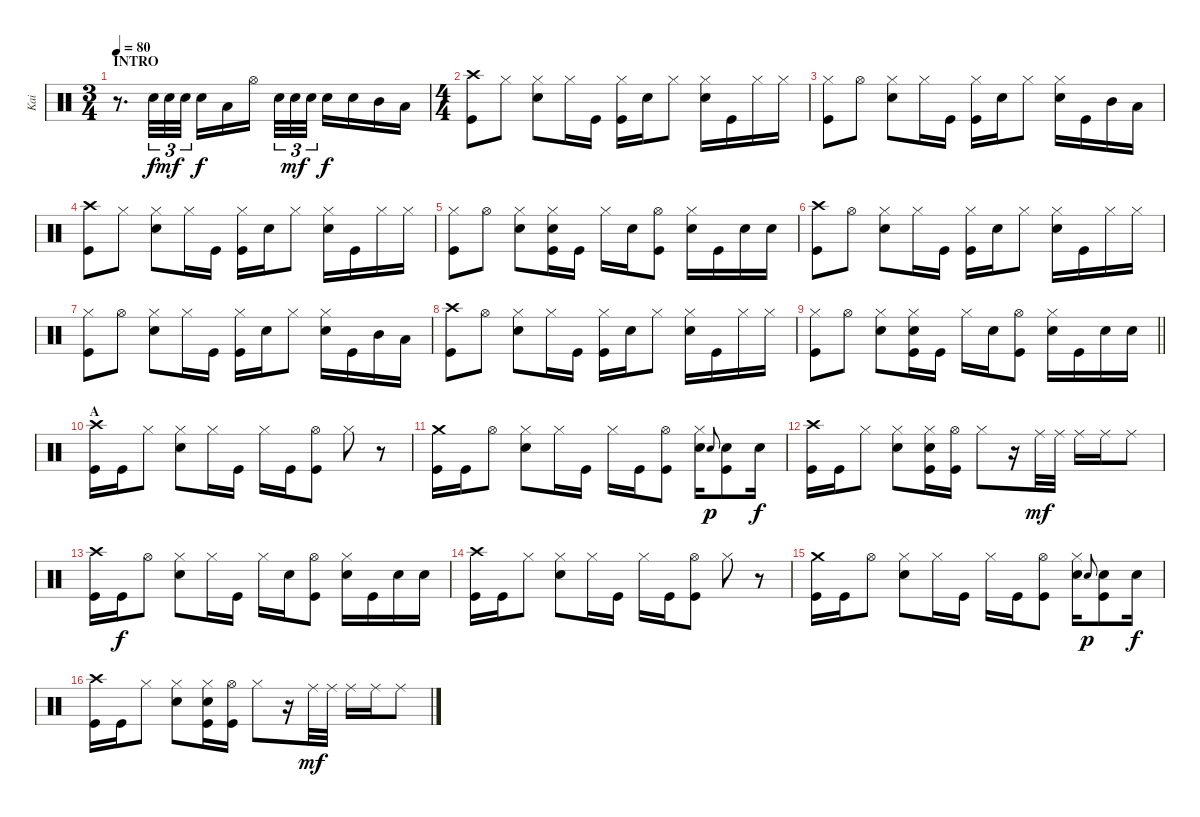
\track ("Kai" "Kai") {instrument percussion}
\staff {score}
\articulation defaults
\ts (3 4)
\section ("" "INTRO")
\tempo 80
\clef neutral
\ks c
r.8{d dy f} "Snare (hit) 2".32{tu (3 2)} "Snare (hit) 2".32{tu (3 2) dy mf} "Snare (hit) 2".32{tu (3 2)} "Snare (hit) 2".16{dy f} "Low Tom (hit)".16 "Hi-Hat (open)".16{beam splitsecondary} "Snare (hit) 2".32{tu (3 2)} "Snare (hit) 2".32{tu (3 2) dy mf} "Snare (hit) 2".32{tu (3 2)} "Snare (hit) 2".16{dy f} "Snare (hit) 2".16 "Mid Tom (hit)".16 "Low Tom (hit)".16 |
\ts (4 4)
("Crash high (hit)" "Kick (hit)").8 "Hi-Hat (closed)".8 ("Hi-Hat (closed)" "Snare (hit) 2").8 "Hi-Hat (closed)".16 "Kick (hit)".16 ("Kick (hit)" "Hi-Hat (closed)").16 "Snare (hit) 2".16 "Hi-Hat (closed)".8 ("Hi-Hat (closed)" "Snare (hit) 2").16 "Kick (hit)".16 "Hi-Hat (closed)".16 "Hi-Hat (closed)".16 |
("Hi-Hat (closed)" "Kick (hit)").8 "Hi-Hat (open)".8 ("Hi-Hat (closed)" "Snare (hit) 2").8 "Hi-Hat (closed)".16 "Kick (hit)".16 ("Kick (hit)" "Hi-Hat (closed)").16 "Snare (hit) 2".16 "Hi-Hat (closed)".8 ("Hi-Hat (closed)" "Snare (hit) 2").16 "Kick (hit)".16 "Mid Tom (hit)".16 "Low Tom (hit)".16 |
("Crash high (hit)" "Kick (hit)").8 "Hi-Hat (closed)".8 ("Hi-Hat (closed)" "Snare (hit) 2").8 "Hi-Hat (closed)".16 "Kick (hit)".16 ("Kick (hit)" "Hi-Hat (closed)").16 "Snare (hit) 2".16 "Hi-Hat (closed)".8 ("Hi-Hat (closed)" "Snare (hit) 2").16 "Kick (hit)".16 "Hi-Hat (closed)".16 "Hi-Hat (closed)".16 |
("Hi-Hat (closed)" "Kick (hit)").8 "Hi-Hat (open)".8 ("Hi-Hat (closed)" "Snare (hit) 2").8 ("Snare (hit) 2" "Hi-Hat (closed)" "Kick (hit)").16 "Kick (hit)".16 "Hi-Hat (closed)".16 "Snare (hit) 2".16 ("Kick (hit)" "Hi-Hat (open)").8 ("Hi-Hat (closed)" "Snare (hit) 2").16 "Kick (hit)".16 "Snare (hit) 2".16 "Snare (hit) 2".16 |
("Crash high (hit)" "Kick (hit)").8 "Hi-Hat (open)".8 ("Hi-Hat (closed)" "Snare (hit) 2").8 "Hi-Hat (closed)".16 "Kick (hit)".16 ("Kick (hit)" "Hi-Hat (closed)").16 "Snare (hit) 2".16 "Hi-Hat (closed)".8 ("Hi-Hat (closed)" "Snare (hit) 2").16 "Kick (hit)".16 "Hi-Hat (closed)".16 "Hi-Hat (closed)".16 |
("Hi-Hat (closed)" "Kick (hit)").8 "Hi-Hat (open)".8 ("Hi-Hat (closed)" "Snare (hit) 2").8 "Hi-Hat (closed)".16 "Kick (hit)".16 ("Kick (hit)" "Hi-Hat (closed)").16 "Snare (hit) 2".16 "Hi-Hat (closed)".8 ("Hi-Hat (closed)" "Snare (hit) 2").16 "Kick (hit)".16 "Mid Tom (hit)".16 "Low Tom (hit)".16 |
("Crash high (hit)" "Kick (hit)").8 "Hi-Hat (open)".8 ("Hi-Hat (closed)" "Snare (hit) 2").8 "Hi-Hat (closed)".16 "Kick (hit)".16 ("Kick (hit)" "Hi-Hat (closed)").16 "Snare (hit) 2".16 "Hi-Hat (closed)".8 ("Hi-Hat (closed)" "Snare (hit) 2").16 "Kick (hit)".16 "Hi-Hat (closed)".16 "Hi-Hat (closed)".16 |
\barLineRight lightlight
("Hi-Hat (closed)" "Kick (hit)").8 "Hi-Hat (open)".8 ("Hi-Hat (closed)" "Snare (hit) 2").8 ("Snare (hit) 2" "Hi-Hat (closed)" "Kick (hit)").16 "Kick (hit)".16 "Hi-Hat (closed)".16 "Snare (hit) 2".16 ("Kick (hit)" "Hi-Hat (open)").8 ("Hi-Hat (closed)" "Snare (hit) 2").16 "Kick (hit)".16 "Snare (hit) 2".16 "Snare (hit) 2".16 |
\section ("" "A")
("Crash high (hit)" "Kick (hit)").16 "Kick (hit)".16 "Hi-Hat (closed)".8 ("Snare (hit) 2" "Hi-Hat (closed)").8 "Hi-Hat (closed)".16 "Kick (hit)".16 "Hi-Hat (closed)".16 "Kick (hit)".16 ("Kick (hit)" "Hi-Hat (open)").8 "Hi-Hat (closed)".8 r.8 |
("Crash medium (hit)" "Kick (hit)").16 "Kick (hit)".16 "Hi-Hat (open)".8 ("Snare (hit) 2" "Hi-Hat (closed)").8 "Hi-Hat (closed)".16 "Kick (hit)".16 "Hi-Hat (closed)".16 "Kick (hit)".16 ("Kick (hit)" "Hi-Hat (open)").8 ("Snare (hit) 2" "Hi-Hat (closed)").16 "Snare (hit) 2".8{gr onbeat dy p} ("Kick (hit)" "Snare (hit) 2").8 "Snare (hit) 2".16{dy f} |
("Crash high (hit)" "Kick (hit)").16 "Kick (hit)".16 "Hi-Hat (closed)".8 ("Snare (hit) 2" "Hi-Hat (closed)").8 ("Hi-Hat (closed)" "Snare (hit) 2" "Kick (hit)").16 ("Kick (hit)" "Hi-Hat (open)").16 "Hi-Hat (closed)".8 r.16 "Ride (middle)".32{dy mf} "Ride (middle)".32 "Ride (middle)".16 "Ride (middle)".16 "Ride (middle)".8 |
("Crash high (hit)" "Kick (hit)").16 "Kick (hit)".16{dy f} "Hi-Hat (open)".8 ("Hi-Hat (closed)" "Snare (hit) 2").8 "Hi-Hat (closed)".16 "Kick (hit)".16 "Hi-Hat (closed)".16 "Snare (hit) 2".16 ("Hi-Hat (open)" "Kick (hit)").8 ("Snare (hit) 2" "Hi-Hat (closed)").16 "Kick (hit)".16 "Snare (hit) 2".16 "Snare (hit) 2".16 |
("Crash high (hit)" "Kick (hit)").16 "Kick (hit)".16 "Hi-Hat (closed)".8 ("Snare (hit) 2" "Hi-Hat (closed)").8 "Hi-Hat (closed)".16 "Kick (hit)".16 "Hi-Hat (closed)".16 "Kick (hit)".16 ("Kick (hit)" "Hi-Hat (open)").8 "Hi-Hat (closed)".8 r.8 |
("Crash medium (hit)" "Kick (hit)").16 "Kick (hit)".16 "Hi-Hat (open)".8 ("Snare (hit) 2" "Hi-Hat (closed)").8 "Hi-Hat (closed)".16 "Kick (hit)".16 "Hi-Hat (closed)".16 "Kick (hit)".16 ("Kick (hit)" "Hi-Hat (open)").8 ("Snare (hit) 2" "Hi-Hat (closed)").16 "Snare (hit) 2".8{gr onbeat dy p} ("Kick (hit)" "Snare (hit) 2").8 "Snare (hit) 2".16{dy f} |
("Crash high (hit)" "Kick (hit)").16 "Kick (hit)".16 "Hi-Hat (closed)".8 ("Snare (hit) 2" "Hi-Hat (closed)").8 ("Hi-Hat (closed)" "Snare (hit) 2" "Kick (hit)").16 ("Kick (hit)" "Hi-Hat (open)").16 "Hi-Hat (closed)".8 r.16 "Ride (middle)".32{dy mf} "Ride (middle)".32 "Ride (middle)".16 "Ride (middle)".16 "Ride (middle)".8
